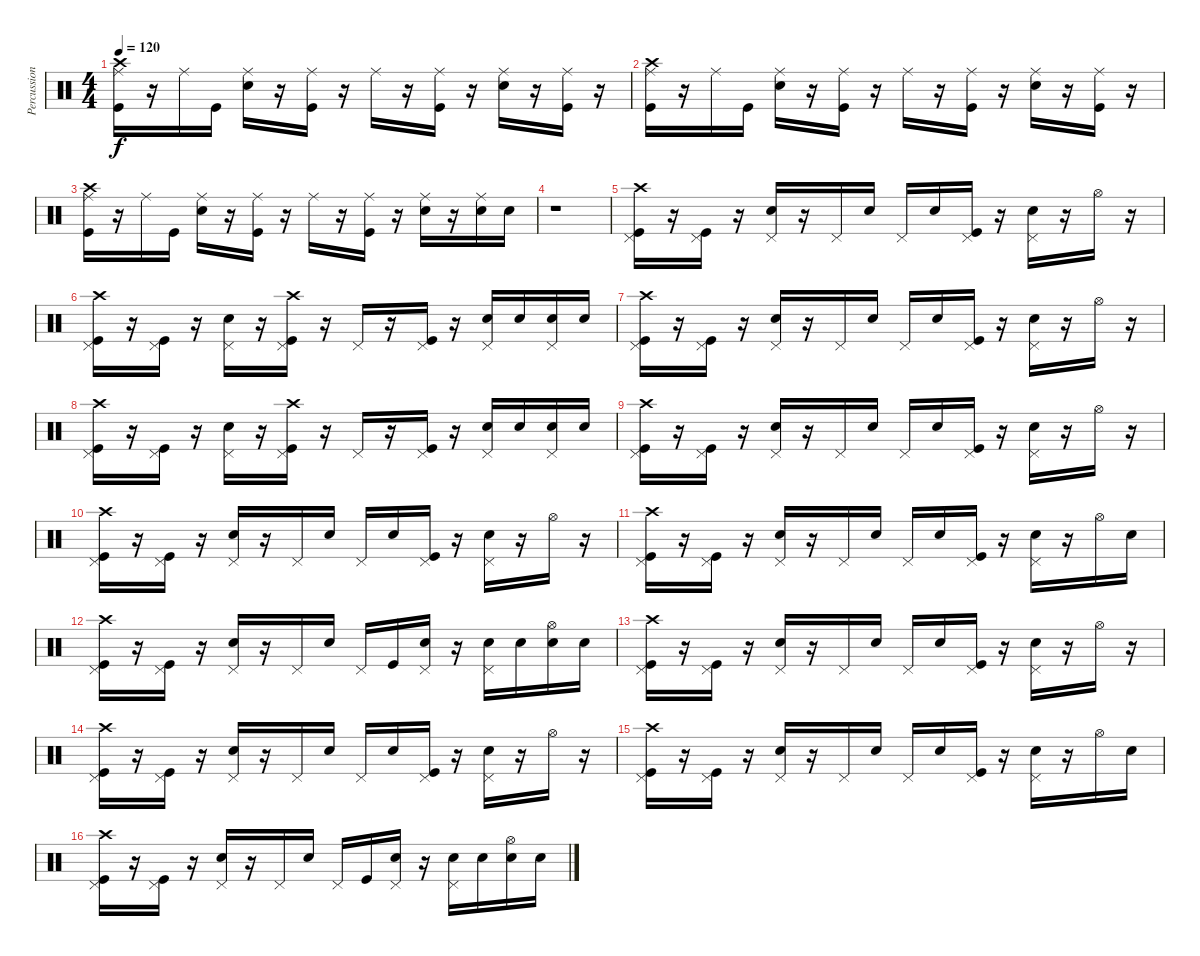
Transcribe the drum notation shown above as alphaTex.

\track ("Percussion" "Percussion") {instrument percussion}
\staff {score}
\articulation defaults
\ts (4 4)
\tempo 120
\clef neutral
\ks c
("Crash high (hit)" "Ride (middle)" "Kick (hit)").16{dy f} r.16 "Ride (middle)".16 "Kick (hit)".16 ("Ride (middle)" "Electric Snare (hit)").16 r.16 ("Ride (middle)" "Kick (hit)").16 r.16 "Ride (middle)".16 r.16 ("Ride (middle)" "Kick (hit)").16 r.16 ("Ride (middle)" "Electric Snare (hit)").16 r.16 ("Ride (middle)" "Kick (hit)").16 r.16 |
("Crash high (hit)" "Ride (middle)" "Kick (hit)").16 r.16 "Ride (middle)".16 "Kick (hit)".16 ("Ride (middle)" "Electric Snare (hit)").16 r.16 ("Ride (middle)" "Kick (hit)").16 r.16 "Ride (middle)".16 r.16 ("Ride (middle)" "Kick (hit)").16 r.16 ("Ride (middle)" "Electric Snare (hit)").16 r.16 ("Ride (middle)" "Kick (hit)").16 r.16 |
("Crash high (hit)" "Ride (middle)" "Kick (hit)").16 r.16 "Ride (middle)".16 "Kick (hit)".16 ("Ride (middle)" "Electric Snare (hit)").16 r.16 ("Ride (middle)" "Kick (hit)").16 r.16 "Ride (middle)".16 r.16 ("Ride (middle)" "Kick (hit)").16 r.16 ("Ride (middle)" "Electric Snare (hit)").16 r.16 ("Ride (middle)" "Electric Snare (hit)").16 "Electric Snare (hit)".16 |
r.1 |
("Pedal Hi-Hat (hit)" "Crash high (hit)" "Kick (hit)").16 r.16 ("Pedal Hi-Hat (hit)" "Kick (hit)").16 r.16 ("Pedal Hi-Hat (hit)" "Electric Snare (hit)").16 r.16 "Pedal Hi-Hat (hit)".16 "Electric Snare (hit)".16 "Pedal Hi-Hat (hit)".16 "Electric Snare (hit)".16 ("Pedal Hi-Hat (hit)" "Kick (hit)").16 r.16 ("Pedal Hi-Hat (hit)" "Electric Snare (hit)").16 r.16 "Hi-Hat (open)".16 r.16 |
("Crash high (hit)" "Pedal Hi-Hat (hit)" "Kick (hit)").16 r.16 ("Pedal Hi-Hat (hit)" "Kick (hit)").16 r.16 ("Pedal Hi-Hat (hit)" "Electric Snare (hit)").16 r.16 ("Crash high (hit)" "Pedal Hi-Hat (hit)" "Kick (hit)").16 r.16 "Pedal Hi-Hat (hit)".16 r.16 ("Pedal Hi-Hat (hit)" "Kick (hit)").16 r.16 ("Pedal Hi-Hat (hit)" "Electric Snare (hit)").16 "Electric Snare (hit)".16 ("Pedal Hi-Hat (hit)" "Electric Snare (hit)").16 "Electric Snare (hit)".16 |
("Pedal Hi-Hat (hit)" "Crash high (hit)" "Kick (hit)").16 r.16 ("Pedal Hi-Hat (hit)" "Kick (hit)").16 r.16 ("Pedal Hi-Hat (hit)" "Electric Snare (hit)").16 r.16 "Pedal Hi-Hat (hit)".16 "Electric Snare (hit)".16 "Pedal Hi-Hat (hit)".16 "Electric Snare (hit)".16 ("Pedal Hi-Hat (hit)" "Kick (hit)").16 r.16 ("Pedal Hi-Hat (hit)" "Electric Snare (hit)").16 r.16 "Hi-Hat (open)".16 r.16 |
("Crash high (hit)" "Pedal Hi-Hat (hit)" "Kick (hit)").16 r.16 ("Pedal Hi-Hat (hit)" "Kick (hit)").16 r.16 ("Pedal Hi-Hat (hit)" "Electric Snare (hit)").16 r.16 ("Crash high (hit)" "Pedal Hi-Hat (hit)" "Kick (hit)").16 r.16 "Pedal Hi-Hat (hit)".16 r.16 ("Pedal Hi-Hat (hit)" "Kick (hit)").16 r.16 ("Pedal Hi-Hat (hit)" "Electric Snare (hit)").16 "Electric Snare (hit)".16 ("Pedal Hi-Hat (hit)" "Electric Snare (hit)").16 "Electric Snare (hit)".16 |
("Pedal Hi-Hat (hit)" "Crash high (hit)" "Kick (hit)").16 r.16 ("Pedal Hi-Hat (hit)" "Kick (hit)").16 r.16 ("Pedal Hi-Hat (hit)" "Electric Snare (hit)").16 r.16 "Pedal Hi-Hat (hit)".16 "Electric Snare (hit)".16 "Pedal Hi-Hat (hit)".16 "Electric Snare (hit)".16 ("Pedal Hi-Hat (hit)" "Kick (hit)").16 r.16 ("Pedal Hi-Hat (hit)" "Electric Snare (hit)").16 r.16 "Hi-Hat (open)".16 r.16 |
("Pedal Hi-Hat (hit)" "Crash high (hit)" "Kick (hit)").16 r.16 ("Pedal Hi-Hat (hit)" "Kick (hit)").16 r.16 ("Pedal Hi-Hat (hit)" "Electric Snare (hit)").16 r.16 "Pedal Hi-Hat (hit)".16 "Electric Snare (hit)".16 "Pedal Hi-Hat (hit)".16 "Electric Snare (hit)".16 ("Pedal Hi-Hat (hit)" "Kick (hit)").16 r.16 ("Pedal Hi-Hat (hit)" "Electric Snare (hit)").16 r.16 "Hi-Hat (open)".16 r.16 |
("Pedal Hi-Hat (hit)" "Crash high (hit)" "Kick (hit)").16 r.16 ("Pedal Hi-Hat (hit)" "Kick (hit)").16 r.16 ("Pedal Hi-Hat (hit)" "Electric Snare (hit)").16 r.16 "Pedal Hi-Hat (hit)".16 "Electric Snare (hit)".16 "Pedal Hi-Hat (hit)".16 "Electric Snare (hit)".16 ("Pedal Hi-Hat (hit)" "Kick (hit)").16 r.16 ("Pedal Hi-Hat (hit)" "Electric Snare (hit)").16 r.16 "Hi-Hat (open)".16 "Electric Snare (hit)".16 |
("Pedal Hi-Hat (hit)" "Crash high (hit)" "Kick (hit)").16 r.16 ("Pedal Hi-Hat (hit)" "Kick (hit)").16 r.16 ("Pedal Hi-Hat (hit)" "Electric Snare (hit)").16 r.16 "Pedal Hi-Hat (hit)".16 "Electric Snare (hit)".16 "Pedal Hi-Hat (hit)".16 "Kick (hit)".16 ("Pedal Hi-Hat (hit)" "Electric Snare (hit)").16 r.16 ("Pedal Hi-Hat (hit)" "Electric Snare (hit)").16 "Electric Snare (hit)".16 ("Hi-Hat (open)" "Electric Snare (hit)").16 "Electric Snare (hit)".16 |
("Pedal Hi-Hat (hit)" "Crash high (hit)" "Kick (hit)").16 r.16 ("Pedal Hi-Hat (hit)" "Kick (hit)").16 r.16 ("Pedal Hi-Hat (hit)" "Electric Snare (hit)").16 r.16 "Pedal Hi-Hat (hit)".16 "Electric Snare (hit)".16 "Pedal Hi-Hat (hit)".16 "Electric Snare (hit)".16 ("Pedal Hi-Hat (hit)" "Kick (hit)").16 r.16 ("Pedal Hi-Hat (hit)" "Electric Snare (hit)").16 r.16 "Hi-Hat (open)".16 r.16 |
("Pedal Hi-Hat (hit)" "Crash high (hit)" "Kick (hit)").16 r.16 ("Pedal Hi-Hat (hit)" "Kick (hit)").16 r.16 ("Pedal Hi-Hat (hit)" "Electric Snare (hit)").16 r.16 "Pedal Hi-Hat (hit)".16 "Electric Snare (hit)".16 "Pedal Hi-Hat (hit)".16 "Electric Snare (hit)".16 ("Pedal Hi-Hat (hit)" "Kick (hit)").16 r.16 ("Pedal Hi-Hat (hit)" "Electric Snare (hit)").16 r.16 "Hi-Hat (open)".16 r.16 |
("Pedal Hi-Hat (hit)" "Crash high (hit)" "Kick (hit)").16 r.16 ("Pedal Hi-Hat (hit)" "Kick (hit)").16 r.16 ("Pedal Hi-Hat (hit)" "Electric Snare (hit)").16 r.16 "Pedal Hi-Hat (hit)".16 "Electric Snare (hit)".16 "Pedal Hi-Hat (hit)".16 "Electric Snare (hit)".16 ("Pedal Hi-Hat (hit)" "Kick (hit)").16 r.16 ("Pedal Hi-Hat (hit)" "Electric Snare (hit)").16 r.16 "Hi-Hat (open)".16 "Electric Snare (hit)".16 |
("Pedal Hi-Hat (hit)" "Crash high (hit)" "Kick (hit)").16 r.16 ("Pedal Hi-Hat (hit)" "Kick (hit)").16 r.16 ("Pedal Hi-Hat (hit)" "Electric Snare (hit)").16 r.16 "Pedal Hi-Hat (hit)".16 "Electric Snare (hit)".16 "Pedal Hi-Hat (hit)".16 "Kick (hit)".16 ("Pedal Hi-Hat (hit)" "Electric Snare (hit)").16 r.16 ("Pedal Hi-Hat (hit)" "Electric Snare (hit)").16 "Electric Snare (hit)".16 ("Hi-Hat (open)" "Electric Snare (hit)").16 "Electric Snare (hit)".16
